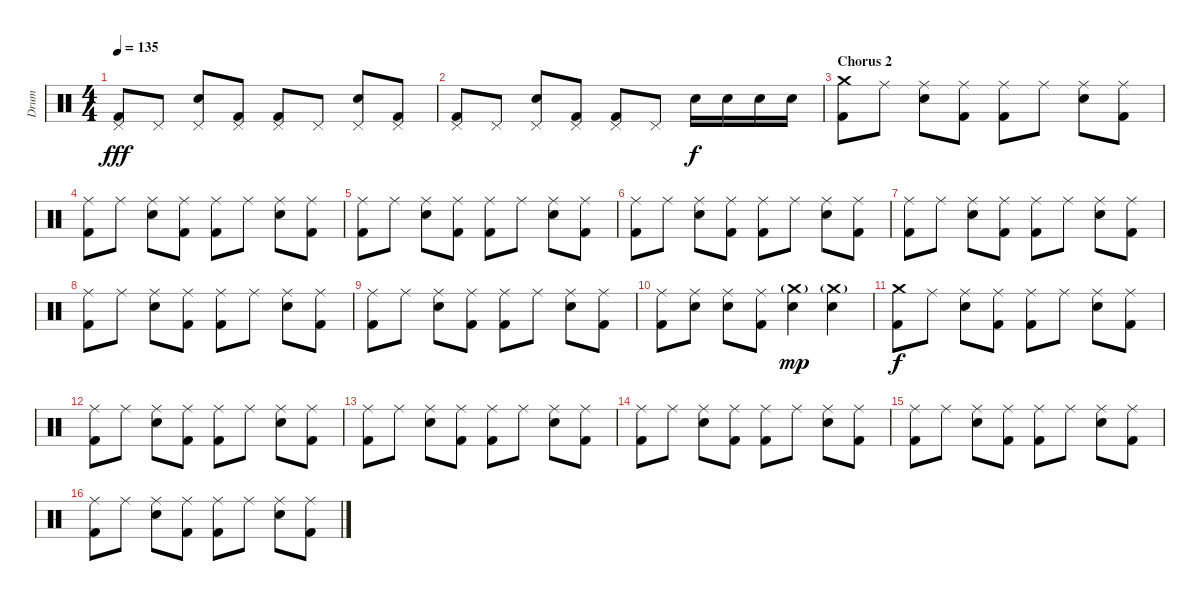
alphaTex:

\track ("Drum" "Drum") {instrument percussion}
\staff {score}
\articulation defaults
\ts (4 4)
\tempo 135
\clef neutral
\ks c
("Pedal Hi-Hat (hit)" "Kick (hit) 2").8{dy fff} "Pedal Hi-Hat (hit)".8 ("Pedal Hi-Hat (hit)" "Snare (hit) 2").8 ("Pedal Hi-Hat (hit)" "Kick (hit) 2").8 ("Pedal Hi-Hat (hit)" "Kick (hit) 2").8 "Pedal Hi-Hat (hit)".8 ("Pedal Hi-Hat (hit)" "Snare (hit) 2").8 ("Pedal Hi-Hat (hit)" "Kick (hit) 2").8 |
("Pedal Hi-Hat (hit)" "Kick (hit) 2").8 "Pedal Hi-Hat (hit)".8 ("Pedal Hi-Hat (hit)" "Snare (hit) 2").8 ("Pedal Hi-Hat (hit)" "Kick (hit) 2").8 ("Pedal Hi-Hat (hit)" "Kick (hit) 2").8 "Pedal Hi-Hat (hit)".8 "Snare (hit) 2".16{dy f} "Snare (hit) 2".16 "Snare (hit) 2".16 "Snare (hit) 2".16 |
\section ("" "Chorus 2")
("Crash medium (hit)" "Kick (hit) 2").8 "Ride (middle)".8 ("Ride (middle)" "Snare (hit) 2").8 ("Ride (middle)" "Kick (hit) 2").8 ("Ride (middle)" "Kick (hit) 2").8 "Ride (middle)".8 ("Ride (middle)" "Snare (hit) 2").8 ("Ride (middle)" "Kick (hit) 2").8 |
("Ride (middle)" "Kick (hit) 2").8 "Ride (middle)".8 ("Ride (middle)" "Snare (hit) 2").8 ("Ride (middle)" "Kick (hit) 2").8 ("Ride (middle)" "Kick (hit) 2").8 "Ride (middle)".8 ("Ride (middle)" "Snare (hit) 2").8 ("Ride (middle)" "Kick (hit) 2").8 |
("Ride (middle)" "Kick (hit) 2").8 "Ride (middle)".8 ("Ride (middle)" "Snare (hit) 2").8 ("Ride (middle)" "Kick (hit) 2").8 ("Ride (middle)" "Kick (hit) 2").8 "Ride (middle)".8 ("Ride (middle)" "Snare (hit) 2").8 ("Ride (middle)" "Kick (hit) 2").8 |
("Ride (middle)" "Kick (hit) 2").8 "Ride (middle)".8 ("Ride (middle)" "Snare (hit) 2").8 ("Ride (middle)" "Kick (hit) 2").8 ("Ride (middle)" "Kick (hit) 2").8 "Ride (middle)".8 ("Ride (middle)" "Snare (hit) 2").8 ("Ride (middle)" "Kick (hit) 2").8 |
("Ride (middle)" "Kick (hit) 2").8 "Ride (middle)".8 ("Ride (middle)" "Snare (hit) 2").8 ("Ride (middle)" "Kick (hit) 2").8 ("Ride (middle)" "Kick (hit) 2").8 "Ride (middle)".8 ("Ride (middle)" "Snare (hit) 2").8 ("Ride (middle)" "Kick (hit) 2").8 |
("Ride (middle)" "Kick (hit) 2").8 "Ride (middle)".8 ("Ride (middle)" "Snare (hit) 2").8 ("Ride (middle)" "Kick (hit) 2").8 ("Ride (middle)" "Kick (hit) 2").8 "Ride (middle)".8 ("Ride (middle)" "Snare (hit) 2").8 ("Ride (middle)" "Kick (hit) 2").8 |
("Ride (middle)" "Kick (hit) 2").8 "Ride (middle)".8 ("Ride (middle)" "Snare (hit) 2").8 ("Ride (middle)" "Kick (hit) 2").8 ("Ride (middle)" "Kick (hit) 2").8 "Ride (middle)".8 ("Ride (middle)" "Snare (hit) 2").8 ("Ride (middle)" "Kick (hit) 2").8 |
("Ride (middle)" "Kick (hit) 2").8 ("Ride (middle)" "Snare (hit) 2").8 ("Ride (middle)" "Snare (hit) 2").8 ("Ride (middle)" "Kick (hit) 2").8 ("Crash medium (hit)"{g} "Snare (hit) 2").4{dy mp} ("Crash medium (hit)"{g} "Snare (hit) 2").4 |
("Crash medium (hit)" "Kick (hit) 2").8{dy f} "Ride (middle)".8 ("Ride (middle)" "Snare (hit) 2").8 ("Ride (middle)" "Kick (hit) 2").8 ("Ride (middle)" "Kick (hit) 2").8 "Ride (middle)".8 ("Ride (middle)" "Snare (hit) 2").8 ("Ride (middle)" "Kick (hit) 2").8 |
("Ride (middle)" "Kick (hit) 2").8 "Ride (middle)".8 ("Ride (middle)" "Snare (hit) 2").8 ("Ride (middle)" "Kick (hit) 2").8 ("Ride (middle)" "Kick (hit) 2").8 "Ride (middle)".8 ("Ride (middle)" "Snare (hit) 2").8 ("Ride (middle)" "Kick (hit) 2").8 |
("Ride (middle)" "Kick (hit) 2").8 "Ride (middle)".8 ("Ride (middle)" "Snare (hit) 2").8 ("Ride (middle)" "Kick (hit) 2").8 ("Ride (middle)" "Kick (hit) 2").8 "Ride (middle)".8 ("Ride (middle)" "Snare (hit) 2").8 ("Ride (middle)" "Kick (hit) 2").8 |
("Ride (middle)" "Kick (hit) 2").8 "Ride (middle)".8 ("Ride (middle)" "Snare (hit) 2").8 ("Ride (middle)" "Kick (hit) 2").8 ("Ride (middle)" "Kick (hit) 2").8 "Ride (middle)".8 ("Ride (middle)" "Snare (hit) 2").8 ("Ride (middle)" "Kick (hit) 2").8 |
("Ride (middle)" "Kick (hit) 2").8 "Ride (middle)".8 ("Ride (middle)" "Snare (hit) 2").8 ("Ride (middle)" "Kick (hit) 2").8 ("Ride (middle)" "Kick (hit) 2").8 "Ride (middle)".8 ("Ride (middle)" "Snare (hit) 2").8 ("Ride (middle)" "Kick (hit) 2").8 |
("Ride (middle)" "Kick (hit) 2").8 "Ride (middle)".8 ("Ride (middle)" "Snare (hit) 2").8 ("Ride (middle)" "Kick (hit) 2").8 ("Ride (middle)" "Kick (hit) 2").8 "Ride (middle)".8 ("Ride (middle)" "Snare (hit) 2").8 ("Ride (middle)" "Kick (hit) 2").8
